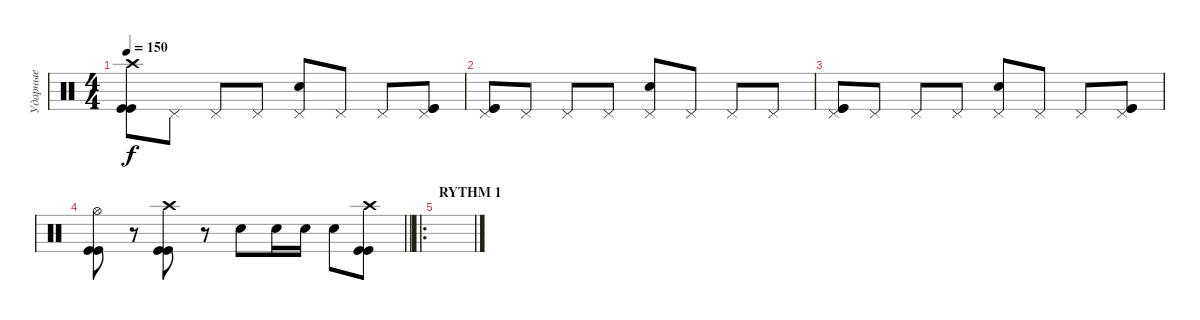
\track ("Ударные" "Ударные") {instrument percussion}
\staff {score}
\articulation defaults
\ts (4 4)
\tempo 150
\clef neutral
\ks c
("Crash high (hit)" "Kick (hit)" "Kick (hit)").8{dy f} "Pedal Hi-Hat (hit)".8 "Pedal Hi-Hat (hit)".8 "Pedal Hi-Hat (hit)".8 ("Pedal Hi-Hat (hit)" "Electric Snare (hit)").8 "Pedal Hi-Hat (hit)".8 "Pedal Hi-Hat (hit)".8 ("Pedal Hi-Hat (hit)" "Kick (hit)" "Kick (hit)").8 |
("Pedal Hi-Hat (hit)" "Kick (hit)" "Kick (hit)").8 "Pedal Hi-Hat (hit)".8 "Pedal Hi-Hat (hit)".8 "Pedal Hi-Hat (hit)".8 ("Pedal Hi-Hat (hit)" "Electric Snare (hit)").8 "Pedal Hi-Hat (hit)".8 "Pedal Hi-Hat (hit)".8 "Pedal Hi-Hat (hit)".8 |
("Pedal Hi-Hat (hit)" "Kick (hit)" "Kick (hit)").8 "Pedal Hi-Hat (hit)".8 "Pedal Hi-Hat (hit)".8 "Pedal Hi-Hat (hit)".8 ("Pedal Hi-Hat (hit)" "Electric Snare (hit)").8 "Pedal Hi-Hat (hit)".8 "Pedal Hi-Hat (hit)".8 ("Pedal Hi-Hat (hit)" "Kick (hit)" "Kick (hit)").8 |
\barLineRight lightlight
("Hi-Hat (open)" "Kick (hit)" "Kick (hit)").8 r.8 ("Crash high (hit)" "Kick (hit)" "Kick (hit)").8 r.8 "Electric Snare (hit)".8 "Electric Snare (hit)".16 "Electric Snare (hit)".16 "Electric Snare (hit)".8 ("Crash high (hit)" "Kick (hit)" "Kick (hit)").8 |
\ro
\section ("" "RYTHM 1")
